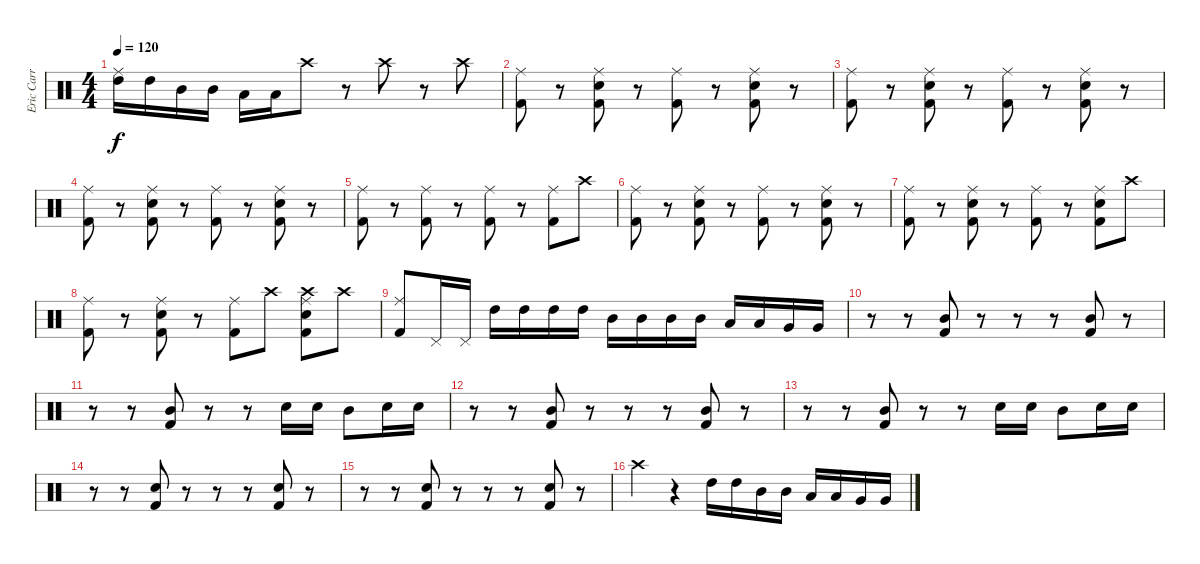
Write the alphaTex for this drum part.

\track ("Eric Carr" "Eric Carr") {instrument percussion}
\staff {score}
\articulation defaults
\ts (4 4)
\tempo 120
\clef neutral
\ks c
("High Tom (hit)" "Ride (middle)").16{dy f} "High Tom (hit)".16 "Mid Tom (hit)".16 "Mid Tom (hit)".16 "Low Tom (hit)".16 "Low Tom (hit)".16 "Crash high (hit)".8 r.8 "Crash high (hit)".8 r.8 "Crash high (hit)".8 |
("Kick (hit) 2" "Ride (middle)").8 r.8 ("Kick (hit) 2" "Ride (middle)" "Snare (hit) 2").8 r.8 ("Kick (hit) 2" "Ride (middle)").8 r.8 ("Kick (hit) 2" "Ride (middle)" "Snare (hit) 2").8 r.8 |
("Kick (hit) 2" "Ride (middle)").8 r.8 ("Kick (hit) 2" "Ride (middle)" "Snare (hit) 2").8 r.8 ("Kick (hit) 2" "Ride (middle)").8 r.8 ("Kick (hit) 2" "Ride (middle)" "Snare (hit) 2").8 r.8 |
("Kick (hit) 2" "Ride (middle)").8 r.8 ("Kick (hit) 2" "Ride (middle)" "Snare (hit) 2").8 r.8 ("Kick (hit) 2" "Ride (middle)").8 r.8 ("Kick (hit) 2" "Ride (middle)" "Snare (hit) 2").8 r.8 |
("Kick (hit) 2" "Ride (middle)").8 r.8 ("Kick (hit) 2" "Ride (middle)").8 r.8 ("Kick (hit) 2" "Ride (middle)").8 r.8 ("Kick (hit) 2" "Ride (middle)").8 "Crash high (hit)".8 |
("Kick (hit) 2" "Ride (middle)").8 r.8 ("Kick (hit) 2" "Ride (middle)" "Snare (hit) 2").8 r.8 ("Kick (hit) 2" "Ride (middle)").8 r.8 ("Kick (hit) 2" "Ride (middle)" "Snare (hit) 2").8 r.8 |
("Kick (hit) 2" "Ride (middle)").8 r.8 ("Kick (hit) 2" "Ride (middle)" "Snare (hit) 2").8 r.8 ("Kick (hit) 2" "Ride (middle)").8 r.8 ("Kick (hit) 2" "Ride (middle)" "Snare (hit) 2").8 "Crash high (hit)".8 |
("Kick (hit) 2" "Ride (middle)").8 r.8 ("Kick (hit) 2" "Ride (middle)" "Snare (hit) 2").8 r.8 ("Kick (hit) 2" "Ride (middle)").8 "Crash high (hit)".8 ("Kick (hit) 2" "Ride (middle)" "Snare (hit) 2" "Crash high (hit)").8 "Crash high (hit)".8 |
("Kick (hit) 2" "Ride (middle)").8 "Pedal Hi-Hat (hit)".16 "Pedal Hi-Hat (hit)".16 "High Tom (hit)".16 "High Tom (hit)".16 "High Tom (hit)".16 "High Tom (hit)".16 "Mid Tom (hit)".16 "Mid Tom (hit)".16 "Mid Tom (hit)".16 "Mid Tom (hit)".16 "Low Tom (hit)".16 "Low Tom (hit)".16 "Very Low Tom (hit)".16 "Very Low Tom (hit)".16 |
r.8 r.8 ("Kick (hit) 2" "Mid Tom (hit)").8 r.8 r.8 r.8 ("Kick (hit) 2" "Mid Tom (hit)").8 r.8 |
r.8 r.8 ("Kick (hit) 2" "Mid Tom (hit)").8 r.8 r.8 "Snare (hit) 2".16 "Snare (hit) 2".16 "Mid Tom (hit)".8 "Snare (hit) 2".16 "Snare (hit) 2".16 |
r.8 r.8 ("Kick (hit) 2" "Mid Tom (hit)").8 r.8 r.8 r.8 ("Kick (hit) 2" "Mid Tom (hit)").8 r.8 |
r.8 r.8 ("Kick (hit) 2" "Mid Tom (hit)").8 r.8 r.8 "Snare (hit) 2".16 "Snare (hit) 2".16 "Mid Tom (hit)".8 "Snare (hit) 2".16 "Snare (hit) 2".16 |
r.8 r.8 ("Kick (hit) 2" "Snare (hit) 2").8 r.8 r.8 r.8 ("Kick (hit) 2" "Snare (hit) 2").8 r.8 |
r.8 r.8 ("Kick (hit) 2" "Snare (hit) 2").8 r.8 r.8 r.8 ("Kick (hit) 2" "Snare (hit) 2").8 r.8 |
"Crash high (hit)".4 r.4 "High Tom (hit)".16 "High Tom (hit)".16 "Mid Tom (hit)".16 "Mid Tom (hit)".16 "Low Tom (hit)".16 "Low Tom (hit)".16 "Very Low Tom (hit)".16 "Very Low Tom (hit)".16
